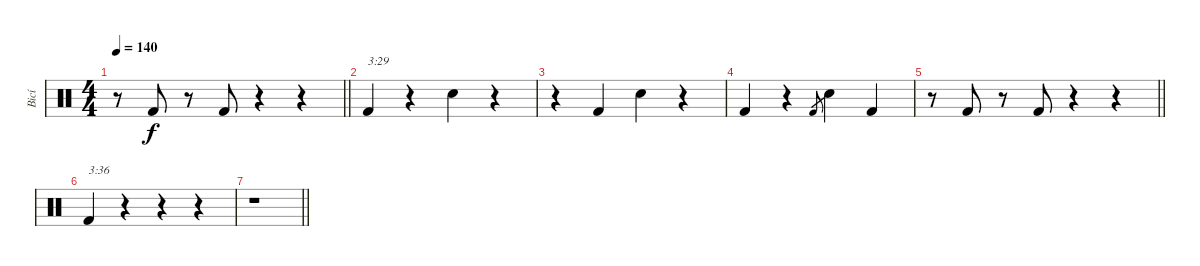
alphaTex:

\track ("Bicí" "Bicí") {instrument percussion}
\staff {score}
\articulation defaults
\ts (4 4)
\tempo 140
\clef neutral
\barLineRight lightlight
\ks c
r.8{dy f} "Kick (hit) 2".8 r.8 "Kick (hit) 2".8 r.4 r.4 |
"Kick (hit) 2".4{txt "3:29"} r.4 "Snare (hit) 2".4 r.4 |
r.4 "Kick (hit) 2".4 "Snare (hit) 2".4 r.4 |
"Kick (hit) 2".4 r.4 "Kick (hit) 2".8{gr} "Snare (hit) 2".4 "Kick (hit) 2".4 |
\barLineRight lightlight
r.8 "Kick (hit) 2".8 r.8 "Kick (hit) 2".8 r.4 r.4 |
"Kick (hit) 2".4{txt "3:36"} r.4 r.4 r.4 |
\barLineRight lightlight
r.1
